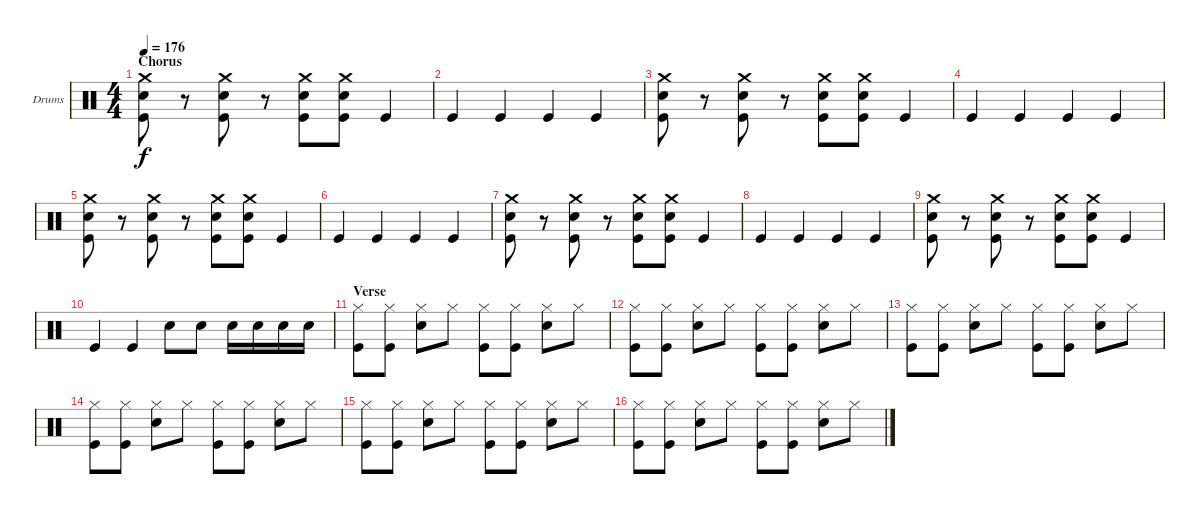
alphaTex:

\defaultSystemsLayout 4
\bracketExtendMode groupsimilarinstruments
\firstSystemTrackNameOrientation horizontal
\otherSystemsTrackNameOrientation horizontal
\track ("Drumkit" "Drums") {instrument percussion}
\staff {score}
\articulation defaults
\ts (4 4)
\section ("" "Chorus")
\tempo 176
\clef neutral
\scale
1.02648
\ks c
("Crash medium (hit)" "Snare (hit) 2" "Kick (hit)").8{dy f} r.8 ("Crash medium (hit)" "Snare (hit) 2" "Kick (hit)").8 r.8 ("Crash medium (hit)" "Snare (hit) 2" "Kick (hit)").8 ("Crash medium (hit)" "Snare (hit) 2" "Kick (hit)").8 "Kick (hit)".4 |
\scale
0.973518 "Kick (hit)".4 "Kick (hit)".4 "Kick (hit)".4 "Kick (hit)".4 |
\scale
1.02648 ("Crash medium (hit)" "Snare (hit) 2" "Kick (hit)").8 r.8 ("Crash medium (hit)" "Snare (hit) 2" "Kick (hit)").8 r.8 ("Crash medium (hit)" "Snare (hit) 2" "Kick (hit)").8 ("Crash medium (hit)" "Snare (hit) 2" "Kick (hit)").8 "Kick (hit)".4 |
\scale
0.973518 "Kick (hit)".4 "Kick (hit)".4 "Kick (hit)".4 "Kick (hit)".4 |
\scale
1.02648 ("Crash medium (hit)" "Snare (hit) 2" "Kick (hit)").8 r.8 ("Crash medium (hit)" "Snare (hit) 2" "Kick (hit)").8 r.8 ("Crash medium (hit)" "Snare (hit) 2" "Kick (hit)").8 ("Crash medium (hit)" "Snare (hit) 2" "Kick (hit)").8 "Kick (hit)".4 |
\scale
0.973518 "Kick (hit)".4 "Kick (hit)".4 "Kick (hit)".4 "Kick (hit)".4 |
\scale
1.02648 ("Crash medium (hit)" "Snare (hit) 2" "Kick (hit)").8 r.8 ("Crash medium (hit)" "Snare (hit) 2" "Kick (hit)").8 r.8 ("Crash medium (hit)" "Snare (hit) 2" "Kick (hit)").8 ("Crash medium (hit)" "Snare (hit) 2" "Kick (hit)").8 "Kick (hit)".4 |
\scale
0.973518 "Kick (hit)".4 "Kick (hit)".4 "Kick (hit)".4 "Kick (hit)".4 |
\scale
1.02648 ("Crash medium (hit)" "Snare (hit) 2" "Kick (hit)").8 r.8 ("Crash medium (hit)" "Snare (hit) 2" "Kick (hit)").8 r.8 ("Crash medium (hit)" "Snare (hit) 2" "Kick (hit)").8 ("Crash medium (hit)" "Snare (hit) 2" "Kick (hit)").8 "Kick (hit)".4 |
\scale
0.973518 "Kick (hit)".4 "Kick (hit)".4 "Snare (hit) 2".8 "Snare (hit) 2".8 "Snare (hit) 2".16 "Snare (hit) 2".16 "Snare (hit) 2".16 "Snare (hit) 2".16 |
\section ("" "Verse")
\scale
1.02648 ("Hi-Hat (closed)" "Kick (hit)").8 ("Hi-Hat (closed)" "Kick (hit)").8 ("Hi-Hat (closed)" "Snare (hit) 2").8 "Hi-Hat (closed)".8 ("Hi-Hat (closed)" "Kick (hit)").8 ("Hi-Hat (closed)" "Kick (hit)").8 ("Hi-Hat (closed)" "Snare (hit) 2").8 "Hi-Hat (closed)".8 |
\scale
0.973518 ("Hi-Hat (closed)" "Kick (hit)").8 ("Hi-Hat (closed)" "Kick (hit)").8 ("Hi-Hat (closed)" "Snare (hit) 2").8 "Hi-Hat (closed)".8 ("Hi-Hat (closed)" "Kick (hit)").8 ("Hi-Hat (closed)" "Kick (hit)").8 ("Hi-Hat (closed)" "Snare (hit) 2").8 "Hi-Hat (closed)".8 |
\scale
1.02648 ("Hi-Hat (closed)" "Kick (hit)").8 ("Hi-Hat (closed)" "Kick (hit)").8 ("Hi-Hat (closed)" "Snare (hit) 2").8 "Hi-Hat (closed)".8 ("Hi-Hat (closed)" "Kick (hit)").8 ("Hi-Hat (closed)" "Kick (hit)").8 ("Hi-Hat (closed)" "Snare (hit) 2").8 "Hi-Hat (closed)".8 |
\scale
0.973518 ("Hi-Hat (closed)" "Kick (hit)").8 ("Hi-Hat (closed)" "Kick (hit)").8 ("Hi-Hat (closed)" "Snare (hit) 2").8 "Hi-Hat (closed)".8 ("Hi-Hat (closed)" "Kick (hit)").8 ("Hi-Hat (closed)" "Kick (hit)").8 ("Hi-Hat (closed)" "Snare (hit) 2").8 "Hi-Hat (closed)".8 |
\scale
1.02648 ("Hi-Hat (closed)" "Kick (hit)").8 ("Hi-Hat (closed)" "Kick (hit)").8 ("Hi-Hat (closed)" "Snare (hit) 2").8 "Hi-Hat (closed)".8 ("Hi-Hat (closed)" "Kick (hit)").8 ("Hi-Hat (closed)" "Kick (hit)").8 ("Hi-Hat (closed)" "Snare (hit) 2").8 "Hi-Hat (closed)".8 |
\scale
0.973518 ("Hi-Hat (closed)" "Kick (hit)").8 ("Hi-Hat (closed)" "Kick (hit)").8 ("Hi-Hat (closed)" "Snare (hit) 2").8 "Hi-Hat (closed)".8 ("Hi-Hat (closed)" "Kick (hit)").8 ("Hi-Hat (closed)" "Kick (hit)").8 ("Hi-Hat (closed)" "Snare (hit) 2").8 "Hi-Hat (closed)".8
